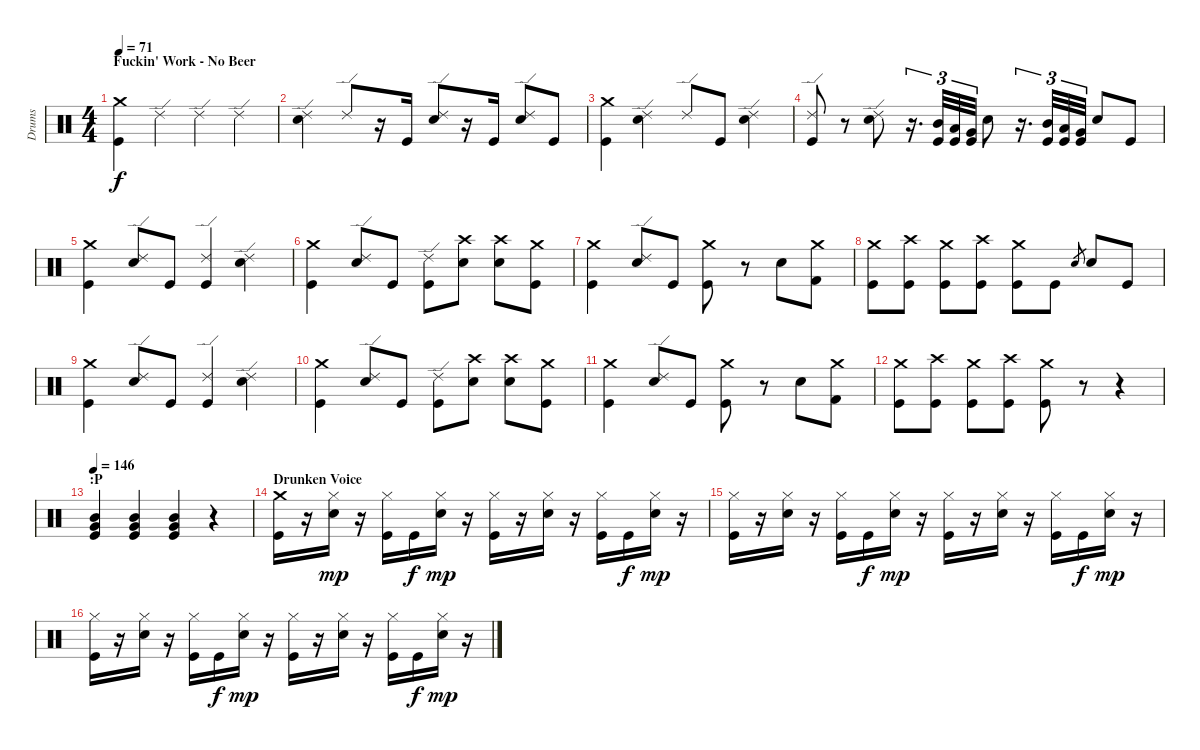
\track ("Drums" "Drums") {instrument percussion}
\staff {score}
\articulation defaults
\ts (4 4)
\section ("" "Fuckin' Work - No Beer")
\tempo 71
\clef neutral
\ks c
("Crash medium (hit)" "Kick (hit)").4{dy f} "Ride (edge) 2".4 "Ride (edge) 2".4 "Ride (edge) 2".4 |
("Ride (edge) 2" "Electric Snare (hit)").4 "Ride (edge) 2".8 r.16 "Kick (hit)".16 ("Ride (edge) 2" "Electric Snare (hit)").8 r.16 "Kick (hit)".16 ("Ride (edge) 2" "Electric Snare (hit)").8 "Kick (hit)".8 |
("Crash medium (hit)" "Kick (hit)").4 ("Ride (edge) 2" "Electric Snare (hit)").4 "Ride (edge) 2".8 "Kick (hit)".8 ("Ride (edge) 2" "Electric Snare (hit)").4 |
("Ride (edge) 2" "Kick (hit)").8 r.8 ("Ride (edge) 2" "Electric Snare (hit)").8 r.16{d tu (3 2)} ("Mid Tom (hit)" "Kick (hit)").32{tu (3 2)} ("Low Tom (hit)" "Kick (hit)").32{tu (3 2)} ("Very Low Tom (hit)" "Kick (hit)").32{tu (3 2)} "Electric Snare (hit)".8 r.16{d tu (3 2)} ("Mid Tom (hit)" "Kick (hit)").32{tu (3 2)} ("Low Tom (hit)" "Kick (hit)").32{tu (3 2)} ("Very Low Tom (hit)" "Kick (hit)").32{tu (3 2)} "Electric Snare (hit)".8 "Kick (hit)".8 |
("Crash medium (hit)" "Kick (hit)").4 ("Ride (edge) 2" "Electric Snare (hit)").8 "Kick (hit)".8 ("Ride (edge) 2" "Kick (hit)").4 ("Ride (edge) 2" "Electric Snare (hit)").4 |
("Crash medium (hit)" "Kick (hit)").4 ("Ride (edge) 2" "Electric Snare (hit)").8 "Kick (hit)".8 ("Ride (edge) 2" "Kick (hit)").8 ("Crash high (hit)" "Electric Snare (hit)").8 ("Crash high (hit)" "Electric Snare (hit)").8 ("Crash medium (hit)" "Kick (hit)").8 |
("Crash medium (hit)" "Kick (hit)").4 ("Ride (edge) 2" "Electric Snare (hit)").8 "Kick (hit)".8 ("Crash medium (hit)" "Kick (hit)").8 r.8 "Electric Snare (hit)".8 ("Crash medium (hit)" "Kick (hit) 2").8 |
("Crash medium (hit)" "Kick (hit)").8 ("Crash high (hit)" "Kick (hit)").8 ("Crash medium (hit)" "Kick (hit)").8 ("Crash high (hit)" "Kick (hit)").8 ("Crash medium (hit)" "Kick (hit)").8 "Kick (hit)".8 "Electric Snare (hit)".8{gr} "Electric Snare (hit)".8 "Kick (hit)".8 |
("Crash medium (hit)" "Kick (hit)").4 ("Ride (edge) 2" "Electric Snare (hit)").8 "Kick (hit)".8 ("Ride (edge) 2" "Kick (hit)").4 ("Ride (edge) 2" "Electric Snare (hit)").4 |
("Crash medium (hit)" "Kick (hit)").4 ("Ride (edge) 2" "Electric Snare (hit)").8 "Kick (hit)".8 ("Ride (edge) 2" "Kick (hit)").8 ("Crash high (hit)" "Electric Snare (hit)").8 ("Crash high (hit)" "Electric Snare (hit)").8 ("Crash medium (hit)" "Kick (hit)").8 |
("Crash medium (hit)" "Kick (hit)").4 ("Ride (edge) 2" "Electric Snare (hit)").8 "Kick (hit)".8 ("Crash medium (hit)" "Kick (hit)").8 r.8 "Electric Snare (hit)".8 ("Crash medium (hit)" "Kick (hit) 2").8 |
("Crash medium (hit)" "Kick (hit)").8 ("Crash high (hit)" "Kick (hit)").8 ("Crash medium (hit)" "Kick (hit)").8 ("Crash high (hit)" "Kick (hit)").8 ("Crash medium (hit)" "Kick (hit)").8 r.8 r.4 |
\section ("" ":P")
\tempo 146
("Mid Tom (hit)" "Very Low Tom (hit)" "Kick (hit)").4 ("Mid Tom (hit)" "Very Low Tom (hit)" "Kick (hit)").4 ("Mid Tom (hit)" "Very Low Tom (hit)" "Kick (hit)").4 r.4 |
\section ("" "Drunken Voice")
("Crash medium (hit)" "Kick (hit)").16 r.16 ("Hi-Hat (closed)" "Electric Snare (hit)").16{dy mp} r.16 ("Hi-Hat (closed)" "Kick (hit)").16 "Kick (hit)".16{dy f} ("Hi-Hat (closed)" "Electric Snare (hit)").16{dy mp} r.16 ("Hi-Hat (closed)" "Kick (hit)").16 r.16 ("Hi-Hat (closed)" "Electric Snare (hit)").16 r.16 ("Hi-Hat (closed)" "Kick (hit)").16 "Kick (hit)".16{dy f} ("Hi-Hat (closed)" "Electric Snare (hit)").16{dy mp} r.16 |
("Hi-Hat (closed)" "Kick (hit)").16 r.16 ("Hi-Hat (closed)" "Electric Snare (hit)").16 r.16 ("Hi-Hat (closed)" "Kick (hit)").16 "Kick (hit)".16{dy f} ("Hi-Hat (closed)" "Electric Snare (hit)").16{dy mp} r.16 ("Hi-Hat (closed)" "Kick (hit)").16 r.16 ("Hi-Hat (closed)" "Electric Snare (hit)").16 r.16 ("Hi-Hat (closed)" "Kick (hit)").16 "Kick (hit)".16{dy f} ("Hi-Hat (closed)" "Electric Snare (hit)").16{dy mp} r.16 |
("Hi-Hat (closed)" "Kick (hit)").16 r.16 ("Hi-Hat (closed)" "Electric Snare (hit)").16 r.16 ("Hi-Hat (closed)" "Kick (hit)").16 "Kick (hit)".16{dy f} ("Hi-Hat (closed)" "Electric Snare (hit)").16{dy mp} r.16 ("Hi-Hat (closed)" "Kick (hit)").16 r.16 ("Hi-Hat (closed)" "Electric Snare (hit)").16 r.16 ("Hi-Hat (closed)" "Kick (hit)").16 "Kick (hit)".16{dy f} ("Hi-Hat (closed)" "Electric Snare (hit)").16{dy mp} r.16
